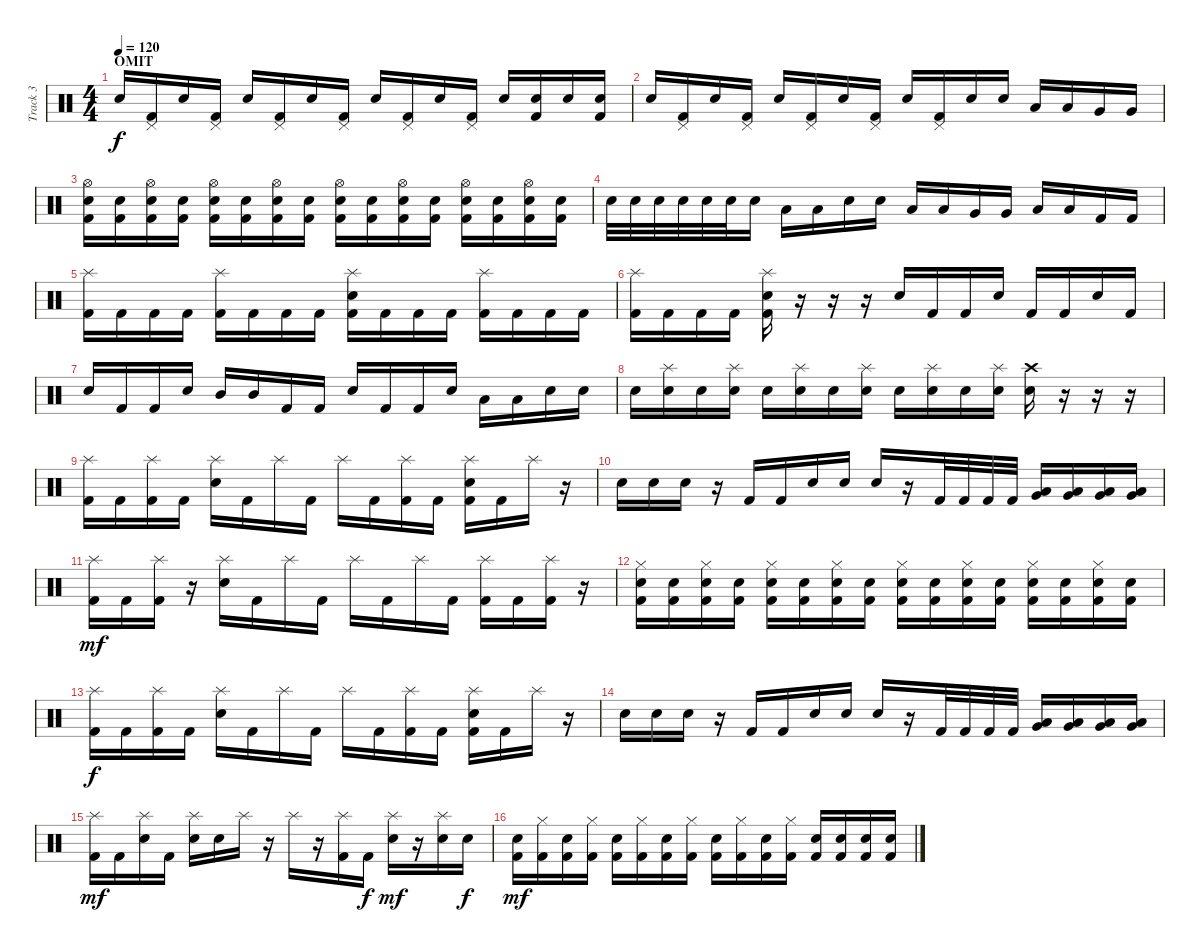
\track ("Track 3" "Track 3") {instrument percussion}
\staff {score}
\articulation defaults
\ts (4 4)
\section ("" "OMIT")
\tempo 120
\clef neutral
\ks c "Electric Snare (hit)".16{dy f}
("Pedal Hi-Hat (hit)" "Kick (hit) 2").16 "Electric Snare (hit)".16 ("Pedal Hi-Hat (hit)" "Kick (hit) 2").16 "Electric Snare (hit)".16 ("Pedal Hi-Hat (hit)" "Kick (hit) 2").16 "Electric Snare (hit)".16 ("Pedal Hi-Hat (hit)" "Kick (hit) 2").16 "Electric Snare (hit)".16 ("Pedal Hi-Hat (hit)" "Kick (hit) 2").16 "Electric Snare (hit)".16 ("Pedal Hi-Hat (hit)" "Kick (hit) 2").16 "Electric Snare (hit)".16 ("Electric Snare (hit)" "Kick (hit) 2").16 "Electric Snare (hit)".16 ("Electric Snare (hit)" "Kick (hit) 2").16 |
"Electric Snare (hit)".16 ("Pedal Hi-Hat (hit)" "Kick (hit) 2").16 "Electric Snare (hit)".16 ("Pedal Hi-Hat (hit)" "Kick (hit) 2").16 "Electric Snare (hit)".16 ("Pedal Hi-Hat (hit)" "Kick (hit) 2").16 "Electric Snare (hit)".16 ("Pedal Hi-Hat (hit)" "Kick (hit) 2").16 "Electric Snare (hit)".16 ("Pedal Hi-Hat (hit)" "Kick (hit) 2").16 "Electric Snare (hit)".16 "Electric Snare (hit)".16 "Low Tom (hit)".16 "Low Tom (hit)".16 "Very Low Tom (hit)".16 "Very Low Tom (hit)".16 |
("Hi-Hat (open)" "Electric Snare (hit)" "Kick (hit) 2").16 ("Electric Snare (hit)" "Kick (hit) 2").16 ("Hi-Hat (open)" "Electric Snare (hit)" "Kick (hit) 2").16 ("Electric Snare (hit)" "Kick (hit) 2").16 ("Hi-Hat (open)" "Electric Snare (hit)" "Kick (hit) 2").16 ("Electric Snare (hit)" "Kick (hit) 2").16 ("Hi-Hat (open)" "Electric Snare (hit)" "Kick (hit) 2").16 ("Electric Snare (hit)" "Kick (hit) 2").16 ("Hi-Hat (open)" "Electric Snare (hit)" "Kick (hit) 2").16 ("Electric Snare (hit)" "Kick (hit) 2").16 ("Hi-Hat (open)" "Electric Snare (hit)" "Kick (hit) 2").16 ("Electric Snare (hit)" "Kick (hit) 2").16 ("Hi-Hat (open)" "Electric Snare (hit)" "Kick (hit) 2").16 ("Electric Snare (hit)" "Kick (hit) 2").16 ("Hi-Hat (open)" "Electric Snare (hit)" "Kick (hit) 2").16 ("Electric Snare (hit)" "Kick (hit) 2").16 |
"Electric Snare (hit)".32 "Electric Snare (hit)".32 "Electric Snare (hit)".32 "Electric Snare (hit)".32 "Electric Snare (hit)".32 "Electric Snare (hit)".32 "Electric Snare (hit)".16 "Low Tom (hit)".16 "Low Tom (hit)".16 "Electric Snare (hit)".16 "Electric Snare (hit)".16 "Low Tom (hit)".16 "Low Tom (hit)".16 "Very Low Tom (hit)".16 "Very Low Tom (hit)".16 "Low Floor Tom (hit)".16 "Low Floor Tom (hit)".16 "Kick (hit) 2".16 "Kick (hit) 2".16 |
("Splash (hit)" "Kick (hit) 2").16 "Kick (hit) 2".16 "Kick (hit) 2".16 "Kick (hit) 2".16 ("Splash (hit)" "Kick (hit) 2").16 "Kick (hit) 2".16 "Kick (hit) 2".16 "Kick (hit) 2".16 ("Splash (hit)" "Kick (hit) 2" "Electric Snare (hit)").16 "Kick (hit) 2".16 "Kick (hit) 2".16 "Kick (hit) 2".16 ("Splash (hit)" "Kick (hit) 2").16 "Kick (hit) 2".16 "Kick (hit) 2".16 "Kick (hit) 2".16 |
("Splash (hit)" "Kick (hit) 2").16 "Kick (hit) 2".16 "Kick (hit) 2".16 "Kick (hit) 2".16 ("Splash (hit)" "Kick (hit) 2" "Electric Snare (hit)").16 r.16 r.16 r.16 "Electric Snare (hit)".16 "Kick (hit) 2".16 "Kick (hit) 2".16 "Electric Snare (hit)".16 "Kick (hit) 2".16 "Kick (hit) 2".16 "Electric Snare (hit)".16 "Kick (hit) 2".16 |
"Electric Snare (hit)".16 "Kick (hit) 2".16 "Kick (hit) 2".16 "Electric Snare (hit)".16 "Mid Tom (hit)".16 "Mid Tom (hit)".16 "Kick (hit) 2".16 "Kick (hit) 2".16 "Electric Snare (hit)".16 "Kick (hit) 2".16 "Kick (hit) 2".16 "Electric Snare (hit)".16 "Low Tom (hit)".16 "Low Tom (hit)".16 "Electric Snare (hit)".16 "Electric Snare (hit)".16 |
"Electric Snare (hit)".16 ("Electric Snare (hit)" "Splash (hit)").16 "Electric Snare (hit)".16 ("Electric Snare (hit)" "Splash (hit)").16 "Electric Snare (hit)".16 ("Electric Snare (hit)" "Splash (hit)").16 "Electric Snare (hit)".16 ("Electric Snare (hit)" "Splash (hit)").16 "Electric Snare (hit)".16 ("Electric Snare (hit)" "Splash (hit)").16 "Electric Snare (hit)".16 ("Electric Snare (hit)" "Splash (hit)").16 ("Crash high (hit)" "Electric Snare (hit)").16 r.16 r.16 r.16 |
("Splash (hit)" "Kick (hit) 2").16 "Kick (hit) 2".16 ("Splash (hit)" "Kick (hit) 2").16 "Kick (hit) 2".16 ("Splash (hit)" "Electric Snare (hit)").16 "Kick (hit) 2".16 "Splash (hit)".16 "Kick (hit) 2".16 "Splash (hit)".16 "Kick (hit) 2".16 ("Splash (hit)" "Kick (hit) 2").16 "Kick (hit) 2".16 ("Electric Snare (hit)" "Splash (hit)" "Kick (hit) 2").16 "Kick (hit) 2".16 "Splash (hit)".16 r.16 |
"Electric Snare (hit)".16 "Electric Snare (hit)".16 "Electric Snare (hit)".16 r.16 "Kick (hit) 2".16 "Kick (hit) 2".16 "Electric Snare (hit)".16 "Electric Snare (hit)".16 "Electric Snare (hit)".16 r.16 "Kick (hit) 2".32 "Kick (hit) 2".32 "Kick (hit) 2".32 "Kick (hit) 2".32 ("Very Low Tom (hit)" "Low Tom (hit)").16 ("Very Low Tom (hit)" "Low Tom (hit)").16 ("Very Low Tom (hit)" "Low Tom (hit)").16 ("Very Low Tom (hit)" "Low Tom (hit)").16 |
("Splash (hit)" "Kick (hit) 2").16{dy mf} "Kick (hit) 2".16 ("Splash (hit)" "Kick (hit) 2").16 r.16 ("Splash (hit)" "Electric Snare (hit)").16 "Kick (hit) 2".16 "Splash (hit)".16 "Kick (hit) 2".16 "Splash (hit)".16 "Kick (hit) 2".16 "Splash (hit)".16 "Kick (hit) 2".16 ("Splash (hit)" "Kick (hit) 2").16 "Kick (hit) 2".16 ("Splash (hit)" "Kick (hit) 2").16 r.16 |
("Hi-Hat (closed)" "Electric Snare (hit)" "Kick (hit) 2").16 ("Electric Snare (hit)" "Kick (hit) 2").16 ("Hi-Hat (closed)" "Electric Snare (hit)" "Kick (hit) 2").16 ("Electric Snare (hit)" "Kick (hit) 2").16 ("Hi-Hat (closed)" "Electric Snare (hit)" "Kick (hit) 2").16 ("Electric Snare (hit)" "Kick (hit) 2").16 ("Hi-Hat (closed)" "Electric Snare (hit)" "Kick (hit) 2").16 ("Electric Snare (hit)" "Kick (hit) 2").16 ("Hi-Hat (closed)" "Electric Snare (hit)" "Kick (hit) 2").16 ("Electric Snare (hit)" "Kick (hit) 2").16 ("Hi-Hat (closed)" "Electric Snare (hit)" "Kick (hit) 2").16 ("Electric Snare (hit)" "Kick (hit) 2").16 ("Hi-Hat (closed)" "Electric Snare (hit)" "Kick (hit) 2").16 ("Electric Snare (hit)" "Kick (hit) 2").16 ("Hi-Hat (closed)" "Electric Snare (hit)" "Kick (hit) 2").16 ("Electric Snare (hit)" "Kick (hit) 2").16 |
("Splash (hit)" "Kick (hit) 2").16{dy f} "Kick (hit) 2".16 ("Splash (hit)" "Kick (hit) 2").16 "Kick (hit) 2".16 ("Splash (hit)" "Electric Snare (hit)").16 "Kick (hit) 2".16 "Splash (hit)".16 "Kick (hit) 2".16 "Splash (hit)".16 "Kick (hit) 2".16 ("Splash (hit)" "Kick (hit) 2").16 "Kick (hit) 2".16 ("Electric Snare (hit)" "Splash (hit)" "Kick (hit) 2").16 "Kick (hit) 2".16 "Splash (hit)".16 r.16 |
"Electric Snare (hit)".16 "Electric Snare (hit)".16 "Electric Snare (hit)".16 r.16 "Kick (hit) 2".16 "Kick (hit) 2".16 "Electric Snare (hit)".16 "Electric Snare (hit)".16 "Electric Snare (hit)".16 r.16 "Kick (hit) 2".32 "Kick (hit) 2".32 "Kick (hit) 2".32 "Kick (hit) 2".32 ("Very Low Tom (hit)" "Low Tom (hit)").16 ("Very Low Tom (hit)" "Low Tom (hit)").16 ("Very Low Tom (hit)" "Low Tom (hit)").16 ("Very Low Tom (hit)" "Low Tom (hit)").16 |
("Kick (hit) 2" "Splash (hit)").16{dy mf} "Kick (hit) 2".16 ("Electric Snare (hit)" "Splash (hit)").16 "Kick (hit) 2".16 ("Electric Snare (hit)" "Splash (hit)").16 "Electric Snare (hit)".16 "Splash (hit)".16 r.16 "Splash (hit)".16 r.16 ("Kick (hit) 2" "Splash (hit)").16 "Kick (hit) 2".16{dy f} ("Electric Snare (hit)" "Splash (hit)").16{dy mf} r.16 ("Electric Snare (hit)" "Splash (hit)").16 "Electric Snare (hit)".16{dy f} |
("Electric Snare (hit)" "Kick (hit) 2").16{dy mf} ("Hi-Hat (closed)" "Kick (hit) 2").16 ("Electric Snare (hit)" "Kick (hit) 2").16 ("Hi-Hat (closed)" "Kick (hit) 2").16 ("Electric Snare (hit)" "Kick (hit) 2").16 ("Hi-Hat (closed)" "Kick (hit) 2").16 ("Electric Snare (hit)" "Kick (hit) 2").16 ("Hi-Hat (closed)" "Kick (hit) 2").16 ("Electric Snare (hit)" "Kick (hit) 2").16 ("Hi-Hat (closed)" "Kick (hit) 2").16 ("Electric Snare (hit)" "Kick (hit) 2").16 ("Hi-Hat (closed)" "Kick (hit) 2").16 ("Electric Snare (hit)" "Kick (hit) 2").16 ("Electric Snare (hit)" "Kick (hit) 2").16 ("Electric Snare (hit)" "Kick (hit) 2").16 ("Electric Snare (hit)" "Kick (hit) 2").16
